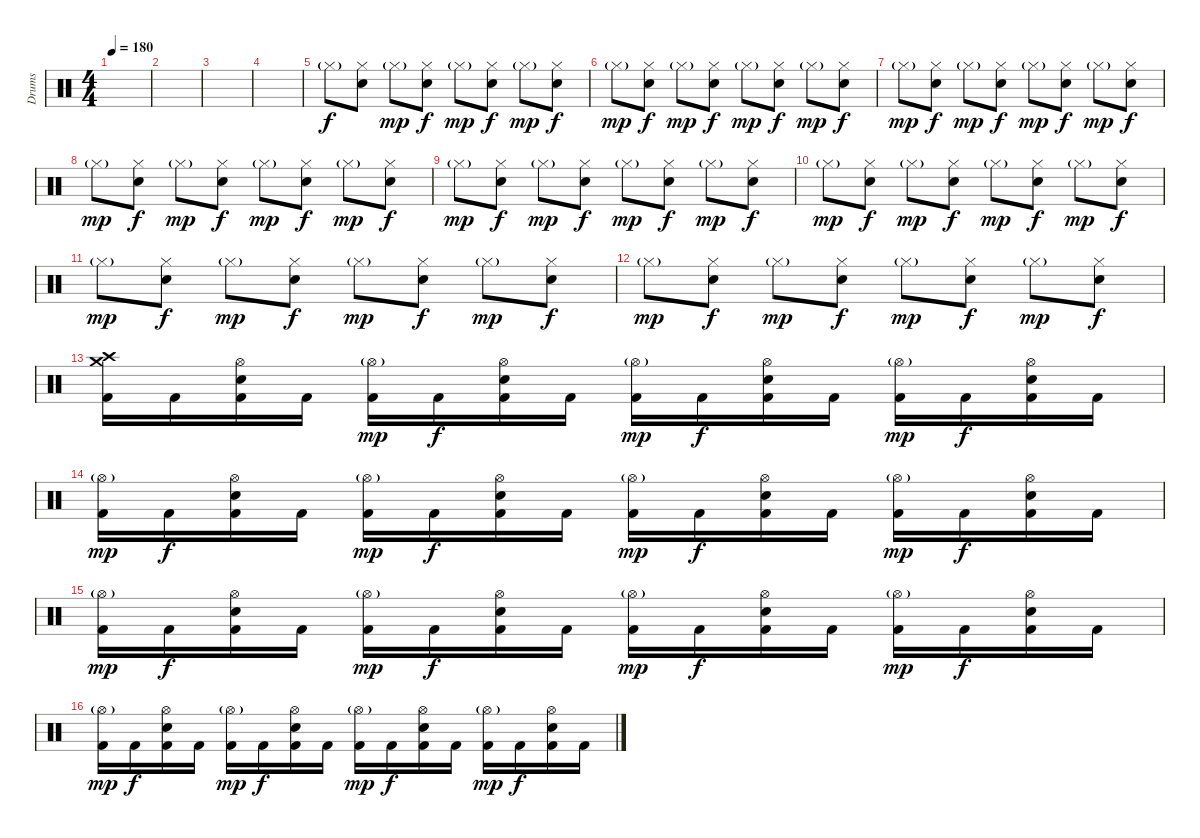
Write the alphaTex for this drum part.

\track ("Drums" "Drums") {instrument percussion}
\staff {score}
\articulation defaults
\ts (4 4)
\tempo 180
\clef neutral
\ks c
|
|
|
|
"Hi-Hat (closed)"{g}.8 ("Hi-Hat (closed)" "Electric Snare (hit)").8{dy f} "Hi-Hat (closed)"{g}.8{dy mp} ("Hi-Hat (closed)" "Electric Snare (hit)").8{dy f} "Hi-Hat (closed)"{g}.8{dy mp} ("Hi-Hat (closed)" "Electric Snare (hit)").8{dy f} "Hi-Hat (closed)"{g}.8{dy mp} ("Hi-Hat (closed)" "Electric Snare (hit)").8{dy f} |
"Hi-Hat (closed)"{g}.8{dy mp} ("Hi-Hat (closed)" "Electric Snare (hit)").8{dy f} "Hi-Hat (closed)"{g}.8{dy mp} ("Hi-Hat (closed)" "Electric Snare (hit)").8{dy f} "Hi-Hat (closed)"{g}.8{dy mp} ("Hi-Hat (closed)" "Electric Snare (hit)").8{dy f} "Hi-Hat (closed)"{g}.8{dy mp} ("Hi-Hat (closed)" "Electric Snare (hit)").8{dy f} |
"Hi-Hat (closed)"{g}.8{dy mp} ("Hi-Hat (closed)" "Electric Snare (hit)").8{dy f} "Hi-Hat (closed)"{g}.8{dy mp} ("Hi-Hat (closed)" "Electric Snare (hit)").8{dy f} "Hi-Hat (closed)"{g}.8{dy mp} ("Hi-Hat (closed)" "Electric Snare (hit)").8{dy f} "Hi-Hat (closed)"{g}.8{dy mp} ("Hi-Hat (closed)" "Electric Snare (hit)").8{dy f} |
"Hi-Hat (closed)"{g}.8{dy mp} ("Hi-Hat (closed)" "Electric Snare (hit)").8{dy f} "Hi-Hat (closed)"{g}.8{dy mp} ("Hi-Hat (closed)" "Electric Snare (hit)").8{dy f} "Hi-Hat (closed)"{g}.8{dy mp} ("Hi-Hat (closed)" "Electric Snare (hit)").8{dy f} "Hi-Hat (closed)"{g}.8{dy mp} ("Hi-Hat (closed)" "Electric Snare (hit)").8{dy f} |
"Hi-Hat (closed)"{g}.8{dy mp} ("Hi-Hat (closed)" "Electric Snare (hit)").8{dy f} "Hi-Hat (closed)"{g}.8{dy mp} ("Hi-Hat (closed)" "Electric Snare (hit)").8{dy f} "Hi-Hat (closed)"{g}.8{dy mp} ("Hi-Hat (closed)" "Electric Snare (hit)").8{dy f} "Hi-Hat (closed)"{g}.8{dy mp} ("Hi-Hat (closed)" "Electric Snare (hit)").8{dy f} |
"Hi-Hat (closed)"{g}.8{dy mp} ("Hi-Hat (closed)" "Electric Snare (hit)").8{dy f} "Hi-Hat (closed)"{g}.8{dy mp} ("Hi-Hat (closed)" "Electric Snare (hit)").8{dy f} "Hi-Hat (closed)"{g}.8{dy mp} ("Hi-Hat (closed)" "Electric Snare (hit)").8{dy f} "Hi-Hat (closed)"{g}.8{dy mp} ("Hi-Hat (closed)" "Electric Snare (hit)").8{dy f} |
"Hi-Hat (closed)"{g}.8{dy mp} ("Hi-Hat (closed)" "Electric Snare (hit)").8{dy f} "Hi-Hat (closed)"{g}.8{dy mp} ("Hi-Hat (closed)" "Electric Snare (hit)").8{dy f} "Hi-Hat (closed)"{g}.8{dy mp} ("Hi-Hat (closed)" "Electric Snare (hit)").8{dy f} "Hi-Hat (closed)"{g}.8{dy mp} ("Hi-Hat (closed)" "Electric Snare (hit)").8{dy f} |
"Hi-Hat (closed)"{g}.8{dy mp} ("Hi-Hat (closed)" "Electric Snare (hit)").8{dy f} "Hi-Hat (closed)"{g}.8{dy mp} ("Hi-Hat (closed)" "Electric Snare (hit)").8{dy f} "Hi-Hat (closed)"{g}.8{dy mp} ("Hi-Hat (closed)" "Electric Snare (hit)").8{dy f} "Hi-Hat (closed)"{g}.8{dy mp} ("Hi-Hat (closed)" "Electric Snare (hit)").8{dy f} |
("Crash medium (hit)" "Crash high (hit)" "Kick (hit) 2").16 "Kick (hit) 2".16 ("Hi-Hat (open)" "Electric Snare (hit)" "Kick (hit) 2").16 "Kick (hit) 2".16 ("Hi-Hat (open)"{g} "Kick (hit) 2").16{dy mp} "Kick (hit) 2".16{dy f} ("Hi-Hat (open)" "Electric Snare (hit)" "Kick (hit) 2").16 "Kick (hit) 2".16 ("Hi-Hat (open)"{g} "Kick (hit) 2").16{dy mp} "Kick (hit) 2".16{dy f} ("Hi-Hat (open)" "Electric Snare (hit)" "Kick (hit) 2").16 "Kick (hit) 2".16 ("Hi-Hat (open)"{g} "Kick (hit) 2").16{dy mp} "Kick (hit) 2".16{dy f} ("Hi-Hat (open)" "Electric Snare (hit)" "Kick (hit) 2").16 "Kick (hit) 2".16 |
("Hi-Hat (open)"{g} "Kick (hit) 2").16{dy mp} "Kick (hit) 2".16{dy f} ("Hi-Hat (open)" "Electric Snare (hit)" "Kick (hit) 2").16 "Kick (hit) 2".16 ("Hi-Hat (open)"{g} "Kick (hit) 2").16{dy mp} "Kick (hit) 2".16{dy f} ("Hi-Hat (open)" "Electric Snare (hit)" "Kick (hit) 2").16 "Kick (hit) 2".16 ("Hi-Hat (open)"{g} "Kick (hit) 2").16{dy mp} "Kick (hit) 2".16{dy f} ("Hi-Hat (open)" "Electric Snare (hit)" "Kick (hit) 2").16 "Kick (hit) 2".16 ("Hi-Hat (open)"{g} "Kick (hit) 2").16{dy mp} "Kick (hit) 2".16{dy f} ("Hi-Hat (open)" "Electric Snare (hit)" "Kick (hit) 2").16 "Kick (hit) 2".16 |
("Hi-Hat (open)"{g} "Kick (hit) 2").16{dy mp} "Kick (hit) 2".16{dy f} ("Hi-Hat (open)" "Electric Snare (hit)" "Kick (hit) 2").16 "Kick (hit) 2".16 ("Hi-Hat (open)"{g} "Kick (hit) 2").16{dy mp} "Kick (hit) 2".16{dy f} ("Hi-Hat (open)" "Electric Snare (hit)" "Kick (hit) 2").16 "Kick (hit) 2".16 ("Hi-Hat (open)"{g} "Kick (hit) 2").16{dy mp} "Kick (hit) 2".16{dy f} ("Hi-Hat (open)" "Electric Snare (hit)" "Kick (hit) 2").16 "Kick (hit) 2".16 ("Hi-Hat (open)"{g} "Kick (hit) 2").16{dy mp} "Kick (hit) 2".16{dy f} ("Hi-Hat (open)" "Electric Snare (hit)" "Kick (hit) 2").16 "Kick (hit) 2".16 |
("Hi-Hat (open)"{g} "Kick (hit) 2").16{dy mp} "Kick (hit) 2".16{dy f} ("Hi-Hat (open)" "Electric Snare (hit)" "Kick (hit) 2").16 "Kick (hit) 2".16 ("Hi-Hat (open)"{g} "Kick (hit) 2").16{dy mp} "Kick (hit) 2".16{dy f} ("Hi-Hat (open)" "Electric Snare (hit)" "Kick (hit) 2").16 "Kick (hit) 2".16 ("Hi-Hat (open)"{g} "Kick (hit) 2").16{dy mp} "Kick (hit) 2".16{dy f} ("Hi-Hat (open)" "Electric Snare (hit)" "Kick (hit) 2").16 "Kick (hit) 2".16 ("Hi-Hat (open)"{g} "Kick (hit) 2").16{dy mp} "Kick (hit) 2".16{dy f} ("Hi-Hat (open)" "Electric Snare (hit)" "Kick (hit) 2").16 "Kick (hit) 2".16
